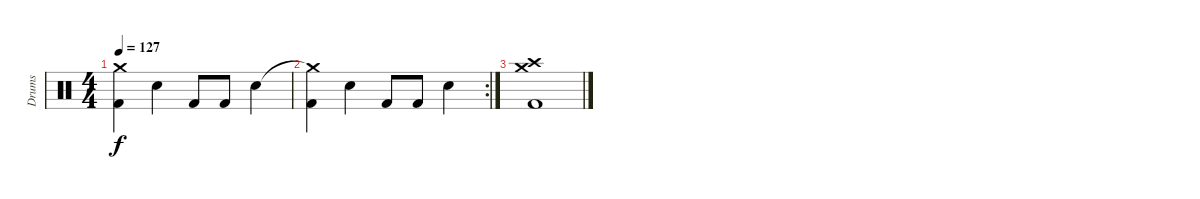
\track ("Drums" "Drums") {instrument percussion}
\staff {score}
\articulation defaults
\ts (4 4)
\tempo 127
\clef neutral
\ks c
("Crash medium (hit)" "Kick (hit) 2").4{dy f} "Electric Snare (hit)".4 "Kick (hit) 2".8 "Kick (hit) 2".8 "Electric Snare (hit)".4 |
\rc 2
("Crash medium (hit)"{t} "Kick (hit) 2").4 "Electric Snare (hit)".4 "Kick (hit) 2".8 "Kick (hit) 2".8 "Electric Snare (hit)".4 |
("Crash high (hit)" "Crash medium (hit)" "Kick (hit) 2").1
